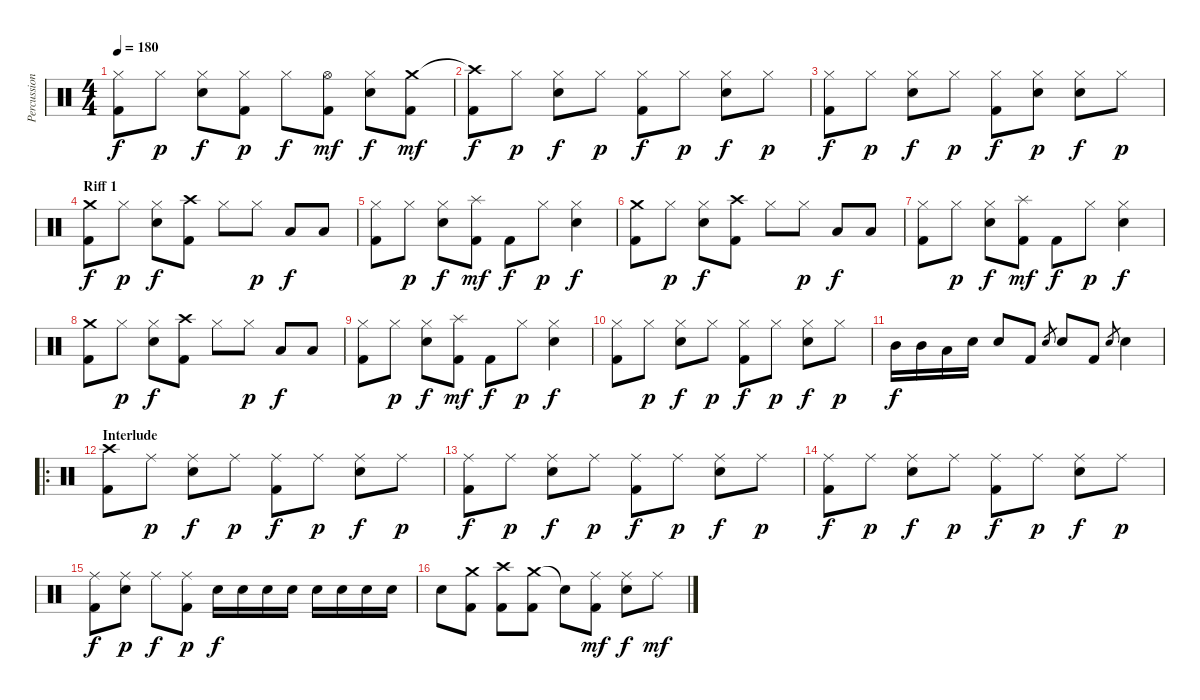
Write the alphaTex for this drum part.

\track ("Percussions" "Percussion") {instrument percussion}
\staff {score}
\articulation defaults
\ts (4 4)
\tempo 180
\clef neutral
\ks c
("Hi-Hat (closed)" "Kick (hit) 2").8{dy f} "Hi-Hat (closed)".8{dy p} ("Hi-Hat (closed)" "Electric Snare (hit)").8{dy f} ("Hi-Hat (closed)" "Kick (hit) 2").8{dy p} "Hi-Hat (closed)".8{dy f} ("Hi-Hat (open)" "Kick (hit) 2").8{dy mf} ("Hi-Hat (closed)" "Electric Snare (hit)").8{dy f} ("Crash medium (hit)" "Kick (hit) 2").8{dy mf} |
("Crash high (hit)"{t} "Kick (hit) 2").8{dy f} "Hi-Hat (closed)".8{dy p} ("Hi-Hat (closed)" "Electric Snare (hit)").8{dy f} "Hi-Hat (closed)".8{dy p} ("Hi-Hat (closed)" "Kick (hit) 2").8{dy f} "Hi-Hat (closed)".8{dy p} ("Hi-Hat (closed)" "Electric Snare (hit)").8{dy f} "Hi-Hat (closed)".8{dy p} |
("Hi-Hat (closed)" "Kick (hit) 2").8{dy f} "Hi-Hat (closed)".8{dy p} ("Hi-Hat (closed)" "Electric Snare (hit)").8{dy f} "Hi-Hat (closed)".8{dy p} ("Hi-Hat (closed)" "Kick (hit) 2").8{dy f} ("Hi-Hat (closed)" "Electric Snare (hit)").8{dy p} ("Hi-Hat (closed)" "Electric Snare (hit)").8{dy f} "Hi-Hat (closed)".8{dy p} |
\section ("" "Riff 1")
("Crash medium (hit)" "Kick (hit) 2").8{dy f} "Hi-Hat (closed)".8{dy p} ("Hi-Hat (closed)" "Electric Snare (hit)").8{dy f} ("Crash high (hit)" "Kick (hit) 2").8 "Hi-Hat (closed)".8 "Hi-Hat (closed)".8{dy p} "Low Tom (hit)".8{dy f} "Low Tom (hit)".8 |
("Hi-Hat (closed)" "Kick (hit) 2").8 "Hi-Hat (closed)".8{dy p} ("Hi-Hat (closed)" "Electric Snare (hit)").8{dy f} ("Splash (hit)" "Kick (hit) 2").8{dy mf} "Kick (hit) 2".8{dy f} "Hi-Hat (closed)".8{dy p} ("Hi-Hat (closed)" "Electric Snare (hit)").4{dy f} |
("Crash medium (hit)" "Kick (hit) 2").8 "Hi-Hat (closed)".8{dy p} ("Hi-Hat (closed)" "Electric Snare (hit)").8{dy f} ("Crash high (hit)" "Kick (hit) 2").8 "Hi-Hat (closed)".8 "Hi-Hat (closed)".8{dy p} "Low Tom (hit)".8{dy f} "Low Tom (hit)".8 |
("Hi-Hat (closed)" "Kick (hit) 2").8 "Hi-Hat (closed)".8{dy p} ("Hi-Hat (closed)" "Electric Snare (hit)").8{dy f} ("Splash (hit)" "Kick (hit) 2").8{dy mf} "Kick (hit) 2".8{dy f} "Hi-Hat (closed)".8{dy p} ("Hi-Hat (closed)" "Electric Snare (hit)").4{dy f} |
("Crash medium (hit)" "Kick (hit) 2").8 "Hi-Hat (closed)".8{dy p} ("Hi-Hat (closed)" "Electric Snare (hit)").8{dy f} ("Crash high (hit)" "Kick (hit) 2").8 "Hi-Hat (closed)".8 "Hi-Hat (closed)".8{dy p} "Low Tom (hit)".8{dy f} "Low Tom (hit)".8 |
("Hi-Hat (closed)" "Kick (hit) 2").8 "Hi-Hat (closed)".8{dy p} ("Hi-Hat (closed)" "Electric Snare (hit)").8{dy f} ("Splash (hit)" "Kick (hit) 2").8{dy mf} "Kick (hit) 2".8{dy f} "Hi-Hat (closed)".8{dy p} ("Hi-Hat (closed)" "Electric Snare (hit)").4{dy f} |
("Hi-Hat (closed)" "Kick (hit) 2").8 "Hi-Hat (closed)".8{dy p} ("Hi-Hat (closed)" "Electric Snare (hit)").8{dy f} "Hi-Hat (closed)".8{dy p} ("Hi-Hat (closed)" "Kick (hit) 2").8{dy f} "Hi-Hat (closed)".8{dy p} ("Hi-Hat (closed)" "Electric Snare (hit)").8{dy f} "Hi-Hat (closed)".8{dy p} |
"Mid Tom (hit)".16{dy f} "Mid Tom (hit)".16 "Low Tom (hit)".16 "Electric Snare (hit)".16 "Electric Snare (hit)".8 "Kick (hit) 2".8 "Electric Snare (hit)".8{gr} "Electric Snare (hit)".8 "Kick (hit) 2".8 "Electric Snare (hit)".8{gr} "Electric Snare (hit)".4 |
\ro
\section ("" "Interlude")
("Crash high (hit)" "Kick (hit) 2").8 "Ride (middle)".8{dy p} ("Ride (middle)" "Electric Snare (hit)").8{dy f} "Ride (middle)".8{dy p} ("Ride (middle)" "Kick (hit) 2").8{dy f} "Ride (middle)".8{dy p} ("Ride (middle)" "Electric Snare (hit)").8{dy f} "Ride (middle)".8{dy p} |
("Ride (middle)" "Kick (hit) 2").8{dy f} "Ride (middle)".8{dy p} ("Ride (middle)" "Electric Snare (hit)").8{dy f} "Ride (middle)".8{dy p} ("Ride (middle)" "Kick (hit) 2").8{dy f} "Ride (middle)".8{dy p} ("Ride (middle)" "Electric Snare (hit)").8{dy f} "Ride (middle)".8{dy p} |
("Ride (middle)" "Kick (hit) 2").8{dy f} "Ride (middle)".8{dy p} ("Ride (middle)" "Electric Snare (hit)").8{dy f} "Ride (middle)".8{dy p} ("Ride (middle)" "Kick (hit) 2").8{dy f} "Ride (middle)".8{dy p} ("Ride (middle)" "Electric Snare (hit)").8{dy f} "Ride (middle)".8{dy p} |
("Ride (middle)" "Kick (hit) 2").8{dy f} ("Ride (middle)" "Electric Snare (hit)").8{dy p} "Ride (middle)".8{dy f} ("Ride (middle)" "Kick (hit) 2").8{dy p} "Electric Snare (hit)".16{dy f} "Electric Snare (hit)".16 "Electric Snare (hit)".16 "Electric Snare (hit)".16 "Electric Snare (hit)".16 "Electric Snare (hit)".16 "Electric Snare (hit)".16 "Electric Snare (hit)".16 |
"Electric Snare (hit)".8 ("Crash medium (hit)" "Kick (hit) 2").8 ("Crash high (hit)" "Kick (hit) 2").8 ("Crash medium (hit)" "Kick (hit) 2").8 "Snare (hit)"{t}.8 ("Ride (middle)" "Kick (hit) 2").8{dy mf} ("Ride (middle)" "Electric Snare (hit)").8{dy f} "Ride (middle)".8{dy mf}
